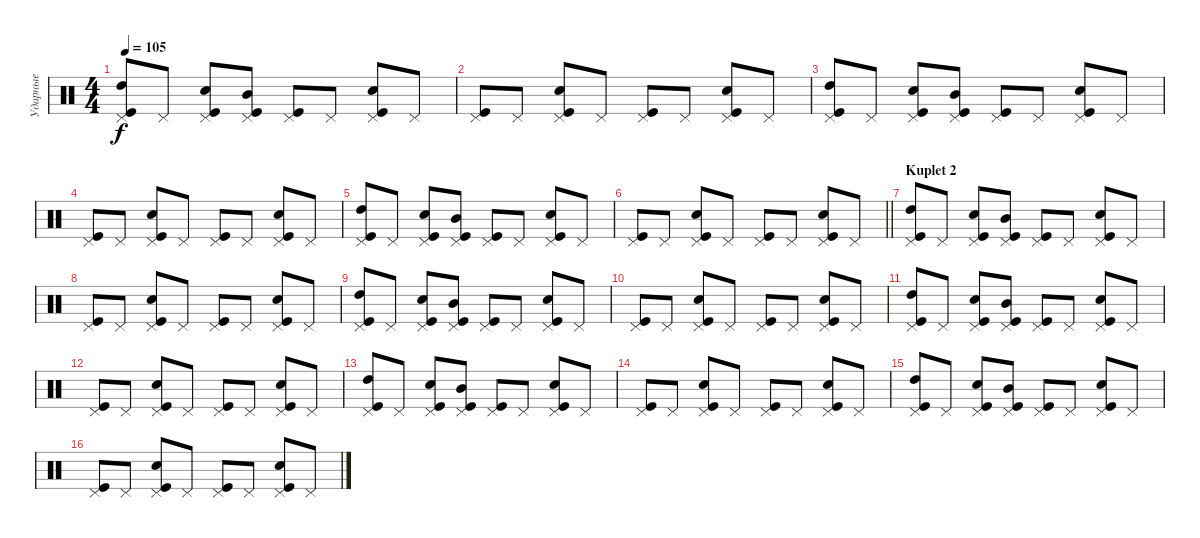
\track ("Ударные" "Ударные") {instrument percussion}
\staff {score}
\articulation defaults
\ts (4 4)
\tempo 105
\clef neutral
\ks c
("Pedal Hi-Hat (hit)" "Kick (hit)" "High Tom (hit)").8{dy f} "Pedal Hi-Hat (hit)".8 ("Pedal Hi-Hat (hit)" "Kick (hit)" "Snare (hit) 2").8 ("Pedal Hi-Hat (hit)" "Kick (hit)" "Mid Tom (hit)").8 ("Pedal Hi-Hat (hit)" "Kick (hit)").8 "Pedal Hi-Hat (hit)".8 ("Pedal Hi-Hat (hit)" "Kick (hit)" "Snare (hit) 2").8 "Pedal Hi-Hat (hit)".8 |
("Pedal Hi-Hat (hit)" "Kick (hit)").8 "Pedal Hi-Hat (hit)".8 ("Pedal Hi-Hat (hit)" "Kick (hit)" "Snare (hit) 2").8 "Pedal Hi-Hat (hit)".8 ("Pedal Hi-Hat (hit)" "Kick (hit)").8 "Pedal Hi-Hat (hit)".8 ("Pedal Hi-Hat (hit)" "Kick (hit)" "Snare (hit) 2").8 "Pedal Hi-Hat (hit)".8 |
("Pedal Hi-Hat (hit)" "Kick (hit)" "High Tom (hit)").8 "Pedal Hi-Hat (hit)".8 ("Pedal Hi-Hat (hit)" "Kick (hit)" "Snare (hit) 2").8 ("Pedal Hi-Hat (hit)" "Kick (hit)" "Mid Tom (hit)").8 ("Pedal Hi-Hat (hit)" "Kick (hit)").8 "Pedal Hi-Hat (hit)".8 ("Pedal Hi-Hat (hit)" "Kick (hit)" "Snare (hit) 2").8 "Pedal Hi-Hat (hit)".8 |
("Pedal Hi-Hat (hit)" "Kick (hit)").8 "Pedal Hi-Hat (hit)".8 ("Pedal Hi-Hat (hit)" "Kick (hit)" "Snare (hit) 2").8 "Pedal Hi-Hat (hit)".8 ("Pedal Hi-Hat (hit)" "Kick (hit)").8 "Pedal Hi-Hat (hit)".8 ("Pedal Hi-Hat (hit)" "Kick (hit)" "Snare (hit) 2").8 "Pedal Hi-Hat (hit)".8 |
("Pedal Hi-Hat (hit)" "Kick (hit)" "High Tom (hit)").8 "Pedal Hi-Hat (hit)".8 ("Pedal Hi-Hat (hit)" "Kick (hit)" "Snare (hit) 2").8 ("Pedal Hi-Hat (hit)" "Kick (hit)" "Mid Tom (hit)").8 ("Pedal Hi-Hat (hit)" "Kick (hit)").8 "Pedal Hi-Hat (hit)".8 ("Pedal Hi-Hat (hit)" "Kick (hit)" "Snare (hit) 2").8 "Pedal Hi-Hat (hit)".8 |
\barLineRight lightlight
("Pedal Hi-Hat (hit)" "Kick (hit)").8 "Pedal Hi-Hat (hit)".8 ("Pedal Hi-Hat (hit)" "Kick (hit)" "Snare (hit) 2").8 "Pedal Hi-Hat (hit)".8 ("Pedal Hi-Hat (hit)" "Kick (hit)").8 "Pedal Hi-Hat (hit)".8 ("Pedal Hi-Hat (hit)" "Kick (hit)" "Snare (hit) 2").8 "Pedal Hi-Hat (hit)".8 |
\section ("" "Kuplet 2")
("Pedal Hi-Hat (hit)" "Kick (hit)" "High Tom (hit)").8 "Pedal Hi-Hat (hit)".8 ("Pedal Hi-Hat (hit)" "Kick (hit)" "Snare (hit) 2").8 ("Pedal Hi-Hat (hit)" "Kick (hit)" "Mid Tom (hit)").8 ("Pedal Hi-Hat (hit)" "Kick (hit)").8 "Pedal Hi-Hat (hit)".8 ("Pedal Hi-Hat (hit)" "Kick (hit)" "Snare (hit) 2").8 "Pedal Hi-Hat (hit)".8 |
("Pedal Hi-Hat (hit)" "Kick (hit)").8 "Pedal Hi-Hat (hit)".8 ("Pedal Hi-Hat (hit)" "Kick (hit)" "Snare (hit) 2").8 "Pedal Hi-Hat (hit)".8 ("Pedal Hi-Hat (hit)" "Kick (hit)").8 "Pedal Hi-Hat (hit)".8 ("Pedal Hi-Hat (hit)" "Kick (hit)" "Snare (hit) 2").8 "Pedal Hi-Hat (hit)".8 |
("Pedal Hi-Hat (hit)" "Kick (hit)" "High Tom (hit)").8 "Pedal Hi-Hat (hit)".8 ("Pedal Hi-Hat (hit)" "Kick (hit)" "Snare (hit) 2").8 ("Pedal Hi-Hat (hit)" "Kick (hit)" "Mid Tom (hit)").8 ("Pedal Hi-Hat (hit)" "Kick (hit)").8 "Pedal Hi-Hat (hit)".8 ("Pedal Hi-Hat (hit)" "Kick (hit)" "Snare (hit) 2").8 "Pedal Hi-Hat (hit)".8 |
("Pedal Hi-Hat (hit)" "Kick (hit)").8 "Pedal Hi-Hat (hit)".8 ("Pedal Hi-Hat (hit)" "Kick (hit)" "Snare (hit) 2").8 "Pedal Hi-Hat (hit)".8 ("Pedal Hi-Hat (hit)" "Kick (hit)").8 "Pedal Hi-Hat (hit)".8 ("Pedal Hi-Hat (hit)" "Kick (hit)" "Snare (hit) 2").8 "Pedal Hi-Hat (hit)".8 |
("Pedal Hi-Hat (hit)" "Kick (hit)" "High Tom (hit)").8 "Pedal Hi-Hat (hit)".8 ("Pedal Hi-Hat (hit)" "Kick (hit)" "Snare (hit) 2").8 ("Pedal Hi-Hat (hit)" "Kick (hit)" "Mid Tom (hit)").8 ("Pedal Hi-Hat (hit)" "Kick (hit)").8 "Pedal Hi-Hat (hit)".8 ("Pedal Hi-Hat (hit)" "Kick (hit)" "Snare (hit) 2").8 "Pedal Hi-Hat (hit)".8 |
("Pedal Hi-Hat (hit)" "Kick (hit)").8 "Pedal Hi-Hat (hit)".8 ("Pedal Hi-Hat (hit)" "Kick (hit)" "Snare (hit) 2").8 "Pedal Hi-Hat (hit)".8 ("Pedal Hi-Hat (hit)" "Kick (hit)").8 "Pedal Hi-Hat (hit)".8 ("Pedal Hi-Hat (hit)" "Kick (hit)" "Snare (hit) 2").8 "Pedal Hi-Hat (hit)".8 |
("Pedal Hi-Hat (hit)" "Kick (hit)" "High Tom (hit)").8 "Pedal Hi-Hat (hit)".8 ("Pedal Hi-Hat (hit)" "Kick (hit)" "Snare (hit) 2").8 ("Pedal Hi-Hat (hit)" "Kick (hit)" "Mid Tom (hit)").8 ("Pedal Hi-Hat (hit)" "Kick (hit)").8 "Pedal Hi-Hat (hit)".8 ("Pedal Hi-Hat (hit)" "Kick (hit)" "Snare (hit) 2").8 "Pedal Hi-Hat (hit)".8 |
("Pedal Hi-Hat (hit)" "Kick (hit)").8 "Pedal Hi-Hat (hit)".8 ("Pedal Hi-Hat (hit)" "Kick (hit)" "Snare (hit) 2").8 "Pedal Hi-Hat (hit)".8 ("Pedal Hi-Hat (hit)" "Kick (hit)").8 "Pedal Hi-Hat (hit)".8 ("Pedal Hi-Hat (hit)" "Kick (hit)" "Snare (hit) 2").8 "Pedal Hi-Hat (hit)".8 |
("Pedal Hi-Hat (hit)" "Kick (hit)" "High Tom (hit)").8 "Pedal Hi-Hat (hit)".8 ("Pedal Hi-Hat (hit)" "Kick (hit)" "Snare (hit) 2").8 ("Pedal Hi-Hat (hit)" "Kick (hit)" "Mid Tom (hit)").8 ("Pedal Hi-Hat (hit)" "Kick (hit)").8 "Pedal Hi-Hat (hit)".8 ("Pedal Hi-Hat (hit)" "Kick (hit)" "Snare (hit) 2").8 "Pedal Hi-Hat (hit)".8 |
("Pedal Hi-Hat (hit)" "Kick (hit)").8 "Pedal Hi-Hat (hit)".8 ("Pedal Hi-Hat (hit)" "Kick (hit)" "Snare (hit) 2").8 "Pedal Hi-Hat (hit)".8 ("Pedal Hi-Hat (hit)" "Kick (hit)").8 "Pedal Hi-Hat (hit)".8 ("Pedal Hi-Hat (hit)" "Kick (hit)" "Snare (hit) 2").8 "Pedal Hi-Hat (hit)".8
